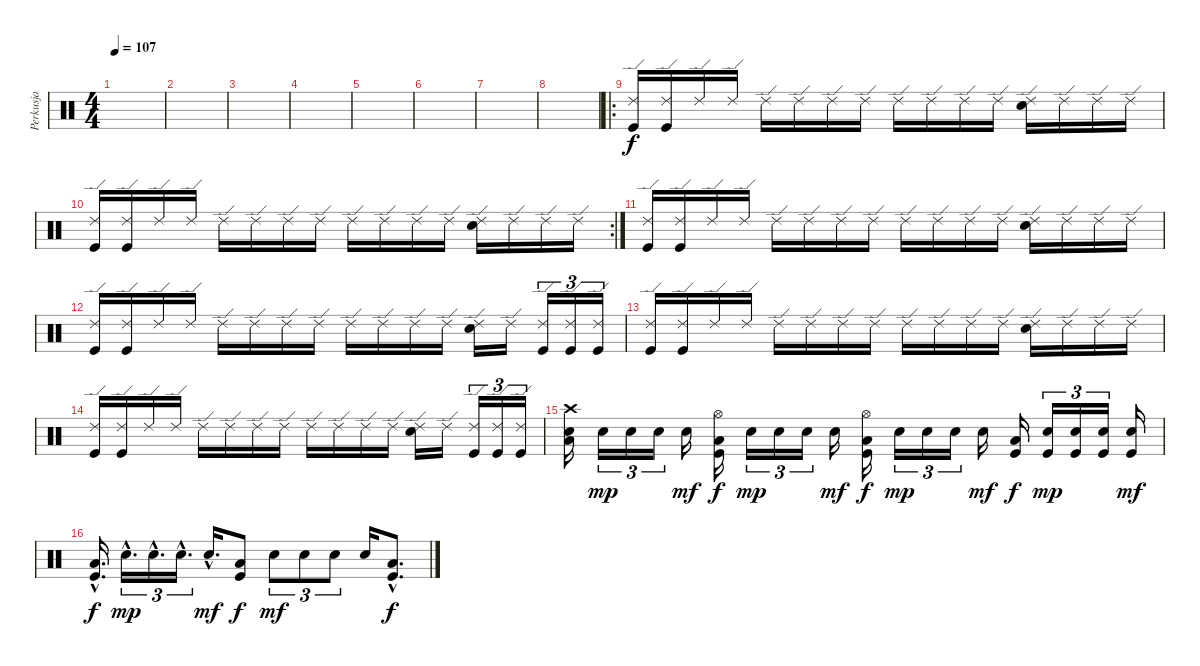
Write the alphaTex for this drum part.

\track ("Perkusja" "Perkusja") {instrument percussion}
\staff {score}
\articulation defaults
\ts (4 4)
\tempo 107
\clef neutral
\ks c
|
|
|
|
|
|
|
|
\ro
("Ride (edge) 2" "Kick (hit)").16 ("Ride (edge) 2" "Kick (hit)").16 "Ride (edge) 2".16 "Ride (edge) 2".16 "Ride (edge) 2".16 "Ride (edge) 2".16 "Ride (edge) 2".16 "Ride (edge) 2".16 "Ride (edge) 2".16 "Ride (edge) 2".16 "Ride (edge) 2".16 "Ride (edge) 2".16 ("Ride (edge) 2" "Electric Snare (hit)").16 "Ride (edge) 2".16 "Ride (edge) 2".16 "Ride (edge) 2".16 |
\rc 2
("Ride (edge) 2" "Kick (hit)").16 ("Ride (edge) 2" "Kick (hit)").16 "Ride (edge) 2".16 "Ride (edge) 2".16 "Ride (edge) 2".16 "Ride (edge) 2".16 "Ride (edge) 2".16 "Ride (edge) 2".16 "Ride (edge) 2".16 "Ride (edge) 2".16 "Ride (edge) 2".16 "Ride (edge) 2".16 ("Ride (edge) 2" "Electric Snare (hit)").16 "Ride (edge) 2".16 "Ride (edge) 2".16 "Ride (edge) 2".16 |
("Ride (edge) 2" "Kick (hit)").16 ("Ride (edge) 2" "Kick (hit)").16 "Ride (edge) 2".16 "Ride (edge) 2".16 "Ride (edge) 2".16 "Ride (edge) 2".16 "Ride (edge) 2".16 "Ride (edge) 2".16 "Ride (edge) 2".16 "Ride (edge) 2".16 "Ride (edge) 2".16 "Ride (edge) 2".16 ("Ride (edge) 2" "Electric Snare (hit)").16 "Ride (edge) 2".16 "Ride (edge) 2".16 "Ride (edge) 2".16 |
("Ride (edge) 2" "Kick (hit)").16 ("Ride (edge) 2" "Kick (hit)").16 "Ride (edge) 2".16 "Ride (edge) 2".16 "Ride (edge) 2".16 "Ride (edge) 2".16 "Ride (edge) 2".16 "Ride (edge) 2".16 "Ride (edge) 2".16 "Ride (edge) 2".16 "Ride (edge) 2".16 "Ride (edge) 2".16 ("Ride (edge) 2" "Electric Snare (hit)").16 "Ride (edge) 2".16 ("Ride (edge) 2" "Kick (hit)").16{tu (3 2)} ("Ride (edge) 2" "Kick (hit)").16{tu (3 2)} ("Ride (edge) 2" "Kick (hit)").16{tu (3 2)} |
("Ride (edge) 2" "Kick (hit)").16 ("Ride (edge) 2" "Kick (hit)").16 "Ride (edge) 2".16 "Ride (edge) 2".16 "Ride (edge) 2".16 "Ride (edge) 2".16 "Ride (edge) 2".16 "Ride (edge) 2".16 "Ride (edge) 2".16 "Ride (edge) 2".16 "Ride (edge) 2".16 "Ride (edge) 2".16 ("Ride (edge) 2" "Electric Snare (hit)").16 "Ride (edge) 2".16 "Ride (edge) 2".16 "Ride (edge) 2".16 |
("Ride (edge) 2" "Kick (hit)").16 ("Ride (edge) 2" "Kick (hit)").16 "Ride (edge) 2".16 "Ride (edge) 2".16 "Ride (edge) 2".16 "Ride (edge) 2".16 "Ride (edge) 2".16 "Ride (edge) 2".16 "Ride (edge) 2".16 "Ride (edge) 2".16 "Ride (edge) 2".16 "Ride (edge) 2".16 ("Ride (edge) 2" "Electric Snare (hit)").16 "Ride (edge) 2".16 ("Ride (edge) 2" "Kick (hit)").16{tu (3 2)} ("Ride (edge) 2" "Kick (hit)").16{tu (3 2)} ("Ride (edge) 2" "Kick (hit)").16{tu (3 2)} |
("Low Floor Tom (hit)" "Snare (hit)" "Crash high (hit)").16 "Electric Snare (hit)".16{tu (3 2) dy mp} "Electric Snare (hit)".16{tu (3 2)} "Electric Snare (hit)".16{tu (3 2)} "Electric Snare (hit)".16{dy mf} ("Low Floor Tom (hit)" "Kick (hit)" "Hi-Hat (open)").16{dy f} "Electric Snare (hit)".16{tu (3 2) dy mp} "Electric Snare (hit)".16{tu (3 2)} "Electric Snare (hit)".16{tu (3 2)} "Electric Snare (hit)".16{dy mf} ("Low Floor Tom (hit)" "Kick (hit)" "Hi-Hat (open)").16{dy f} "Electric Snare (hit)".16{tu (3 2) dy mp} "Electric Snare (hit)".16{tu (3 2)} "Electric Snare (hit)".16{tu (3 2)} "Electric Snare (hit)".16{dy mf} ("Low Floor Tom (hit)" "Kick (hit)").16{dy f} ("Electric Snare (hit)" "Kick (hit)").16{tu (3 2) dy mp} ("Electric Snare (hit)" "Kick (hit)").16{tu (3 2)} ("Electric Snare (hit)" "Kick (hit)").16{tu (3 2)} ("Electric Snare (hit)" "Kick (hit)").16{dy mf} |
("Low Floor Tom (hit)"{hac} "Kick (hit)"{hac}).16{d dy f} "Electric Snare (hit)"{hac}.16{d tu (3 2) dy mp} "Electric Snare (hit)"{hac}.16{d tu (3 2)} "Electric Snare (hit)"{hac}.16{d tu (3 2)} "Electric Snare (hit)"{hac}.16{d dy mf} ("Low Floor Tom (hit)" "Kick (hit)").8{dy f} "Electric Snare (hit)".8{tu (3 2) dy mf} "Electric Snare (hit)".8{tu (3 2)} "Electric Snare (hit)".8{tu (3 2)} "Electric Snare (hit)".16 ("Low Floor Tom (hit)"{hac} "Kick (hit)"{hac}).8{d dy f}
